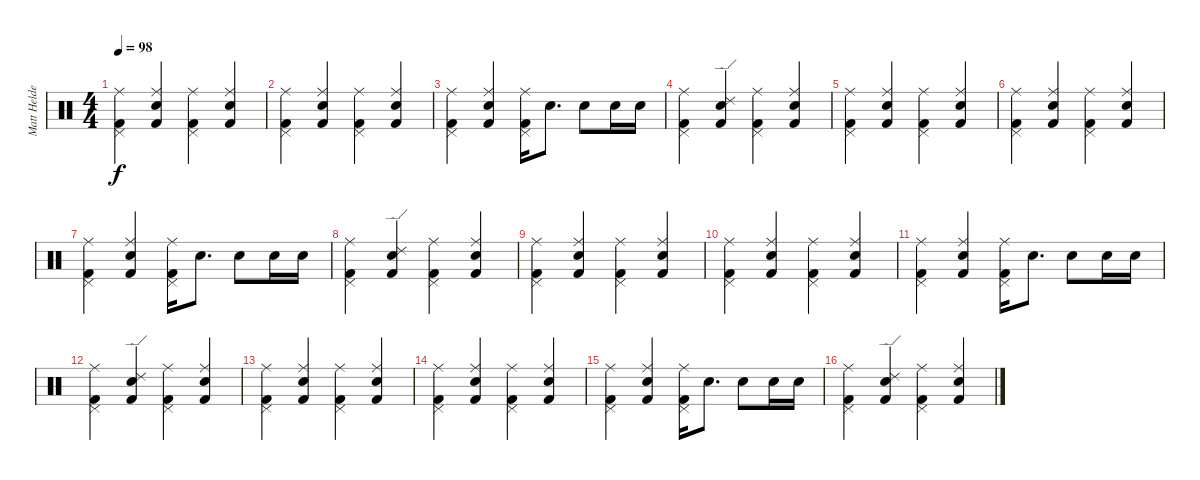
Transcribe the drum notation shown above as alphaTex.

\track ("Matt Helders" "Matt Helde") {instrument percussion}
\staff {score}
\articulation defaults
\ts (4 4)
\tempo 98
\clef neutral
\ks c
("Kick (hit) 2" "Pedal Hi-Hat (hit)" "Ride (middle)").4{dy f} ("Snare (hit) 2" "Kick (hit) 2" "Ride (middle)").4 ("Kick (hit) 2" "Pedal Hi-Hat (hit)" "Ride (middle)").4 ("Snare (hit) 2" "Kick (hit) 2" "Ride (middle)").4 |
("Kick (hit) 2" "Pedal Hi-Hat (hit)" "Ride (middle)").4 ("Snare (hit) 2" "Kick (hit) 2" "Ride (middle)").4 ("Kick (hit) 2" "Pedal Hi-Hat (hit)" "Ride (middle)").4 ("Snare (hit) 2" "Kick (hit) 2" "Ride (middle)").4 |
("Kick (hit) 2" "Pedal Hi-Hat (hit)" "Ride (middle)").4 ("Snare (hit) 2" "Kick (hit) 2" "Ride (middle)").4 ("Kick (hit) 2" "Pedal Hi-Hat (hit)" "Ride (middle)").16 "Snare (hit) 2".8{d} "Snare (hit) 2".8 "Snare (hit) 2".16 "Snare (hit) 2".16 |
("Kick (hit) 2" "Pedal Hi-Hat (hit)" "Ride (middle)").4 ("Snare (hit) 2" "Kick (hit) 2" "Ride (edge) 2").4 ("Kick (hit) 2" "Pedal Hi-Hat (hit)" "Ride (middle)").4 ("Snare (hit) 2" "Kick (hit) 2" "Ride (middle)").4 |
("Kick (hit) 2" "Pedal Hi-Hat (hit)" "Ride (middle)").4 ("Snare (hit) 2" "Kick (hit) 2" "Ride (middle)").4 ("Kick (hit) 2" "Pedal Hi-Hat (hit)" "Ride (middle)").4 ("Snare (hit) 2" "Kick (hit) 2" "Ride (middle)").4 |
("Kick (hit) 2" "Pedal Hi-Hat (hit)" "Ride (middle)").4 ("Snare (hit) 2" "Kick (hit) 2" "Ride (middle)").4 ("Kick (hit) 2" "Pedal Hi-Hat (hit)" "Ride (middle)").4 ("Snare (hit) 2" "Kick (hit) 2" "Ride (middle)").4 |
("Kick (hit) 2" "Pedal Hi-Hat (hit)" "Ride (middle)").4 ("Snare (hit) 2" "Kick (hit) 2" "Ride (middle)").4 ("Kick (hit) 2" "Pedal Hi-Hat (hit)" "Ride (middle)").16 "Snare (hit) 2".8{d} "Snare (hit) 2".8 "Snare (hit) 2".16 "Snare (hit) 2".16 |
("Kick (hit) 2" "Pedal Hi-Hat (hit)" "Ride (middle)").4 ("Snare (hit) 2" "Kick (hit) 2" "Ride (edge) 2").4 ("Kick (hit) 2" "Pedal Hi-Hat (hit)" "Ride (middle)").4 ("Snare (hit) 2" "Kick (hit) 2" "Ride (middle)").4 |
("Kick (hit) 2" "Pedal Hi-Hat (hit)" "Ride (middle)").4 ("Snare (hit) 2" "Kick (hit) 2" "Ride (middle)").4 ("Kick (hit) 2" "Pedal Hi-Hat (hit)" "Ride (middle)").4 ("Snare (hit) 2" "Kick (hit) 2" "Ride (middle)").4 |
("Kick (hit) 2" "Pedal Hi-Hat (hit)" "Ride (middle)").4 ("Snare (hit) 2" "Kick (hit) 2" "Ride (middle)").4 ("Kick (hit) 2" "Pedal Hi-Hat (hit)" "Ride (middle)").4 ("Snare (hit) 2" "Kick (hit) 2" "Ride (middle)").4 |
("Kick (hit) 2" "Pedal Hi-Hat (hit)" "Ride (middle)").4 ("Snare (hit) 2" "Kick (hit) 2" "Ride (middle)").4 ("Kick (hit) 2" "Pedal Hi-Hat (hit)" "Ride (middle)").16 "Snare (hit) 2".8{d} "Snare (hit) 2".8 "Snare (hit) 2".16 "Snare (hit) 2".16 |
("Kick (hit) 2" "Pedal Hi-Hat (hit)" "Ride (middle)").4 ("Snare (hit) 2" "Kick (hit) 2" "Ride (edge) 2").4 ("Kick (hit) 2" "Pedal Hi-Hat (hit)" "Ride (middle)").4 ("Snare (hit) 2" "Kick (hit) 2" "Ride (middle)").4 |
("Kick (hit) 2" "Pedal Hi-Hat (hit)" "Ride (middle)").4 ("Snare (hit) 2" "Kick (hit) 2" "Ride (middle)").4 ("Kick (hit) 2" "Pedal Hi-Hat (hit)" "Ride (middle)").4 ("Snare (hit) 2" "Kick (hit) 2" "Ride (middle)").4 |
("Kick (hit) 2" "Pedal Hi-Hat (hit)" "Ride (middle)").4 ("Snare (hit) 2" "Kick (hit) 2" "Ride (middle)").4 ("Kick (hit) 2" "Pedal Hi-Hat (hit)" "Ride (middle)").4 ("Snare (hit) 2" "Kick (hit) 2" "Ride (middle)").4 |
("Kick (hit) 2" "Pedal Hi-Hat (hit)" "Ride (middle)").4 ("Snare (hit) 2" "Kick (hit) 2" "Ride (middle)").4 ("Kick (hit) 2" "Pedal Hi-Hat (hit)" "Ride (middle)").16 "Snare (hit) 2".8{d} "Snare (hit) 2".8 "Snare (hit) 2".16 "Snare (hit) 2".16 |
("Kick (hit) 2" "Pedal Hi-Hat (hit)" "Ride (middle)").4 ("Snare (hit) 2" "Kick (hit) 2" "Ride (edge) 2").4 ("Kick (hit) 2" "Pedal Hi-Hat (hit)" "Ride (middle)").4 ("Snare (hit) 2" "Kick (hit) 2" "Ride (middle)").4
